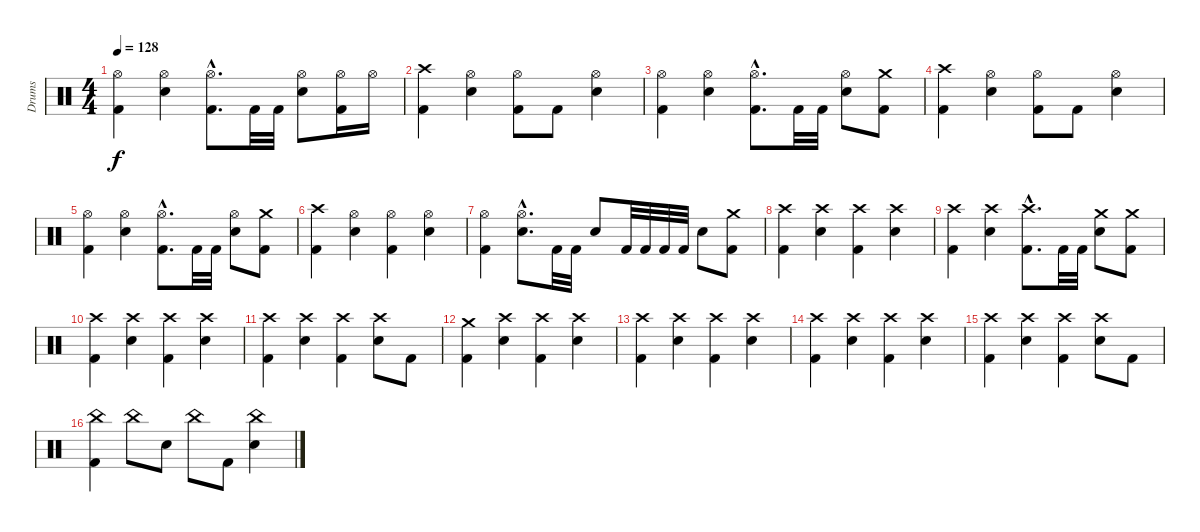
\track ("Drums" "Drums") {instrument percussion}
\staff {score}
\articulation defaults
\ts (4 4)
\tempo 128
\clef neutral
\ks c
("Hi-Hat (open)" "Kick (hit) 2").4{dy f} ("Hi-Hat (open)" "Snare (hit) 2").4 ("Hi-Hat (open)"{hac} "Kick (hit) 2"{hac}).8{d} "Kick (hit) 2".32 "Kick (hit) 2".32 ("Hi-Hat (open)" "Snare (hit) 2").8 ("Hi-Hat (open)" "Kick (hit) 2").16 "Hi-Hat (open)".16 |
("Crash high (hit)" "Kick (hit) 2").4 ("Hi-Hat (open)" "Snare (hit) 2").4 ("Hi-Hat (open)" "Kick (hit) 2").8 "Kick (hit) 2".8 ("Hi-Hat (open)" "Snare (hit) 2").4 |
("Hi-Hat (open)" "Kick (hit) 2").4 ("Hi-Hat (open)" "Snare (hit) 2").4 ("Hi-Hat (open)"{hac} "Kick (hit) 2"{hac}).8{d} "Kick (hit) 2".32 "Kick (hit) 2".32 ("Hi-Hat (open)" "Snare (hit) 2").8 ("Crash medium (hit)" "Kick (hit) 2").8 |
("Crash high (hit)" "Kick (hit) 2").4 ("Hi-Hat (open)" "Snare (hit) 2").4 ("Hi-Hat (open)" "Kick (hit) 2").8 "Kick (hit) 2".8 ("Hi-Hat (open)" "Snare (hit) 2").4 |
("Hi-Hat (open)" "Kick (hit) 2").4 ("Hi-Hat (open)" "Snare (hit) 2").4 ("Hi-Hat (open)"{hac} "Kick (hit) 2"{hac}).8{d} "Kick (hit) 2".32 "Kick (hit) 2".32 ("Hi-Hat (open)" "Snare (hit) 2").8 ("Crash medium (hit)" "Kick (hit) 2").8 |
("Crash high (hit)" "Kick (hit) 2").4 ("Hi-Hat (open)" "Snare (hit) 2").4 ("Hi-Hat (open)" "Kick (hit) 2").4 ("Hi-Hat (open)" "Snare (hit) 2").4 |
("Hi-Hat (open)" "Kick (hit) 2").4 ("Hi-Hat (open)"{hac} "Snare (hit) 2"{hac}).8{d} "Kick (hit) 2".32 "Kick (hit) 2".32 "Snare (hit) 2".8 "Kick (hit) 2".32 "Kick (hit) 2".32 "Kick (hit) 2".32 "Kick (hit) 2".32 "Snare (hit) 2".8 ("Crash medium (hit)" "Kick (hit) 2").8 |
("Crash high (hit)" "Kick (hit) 2").4 ("Crash high (hit)" "Snare (hit) 2").4 ("Crash high (hit)" "Kick (hit) 2").4 ("Crash high (hit)" "Snare (hit) 2").4 |
("Crash high (hit)" "Kick (hit) 2").4 ("Crash high (hit)" "Snare (hit) 2").4 ("Crash high (hit)"{hac} "Kick (hit) 2"{hac}).8{d} "Kick (hit) 2".32 "Kick (hit) 2".32 ("Crash medium (hit)" "Snare (hit) 2").8 ("Crash medium (hit)" "Kick (hit) 2").8 |
("Crash high (hit)" "Kick (hit) 2").4 ("Crash high (hit)" "Snare (hit) 2").4 ("Crash high (hit)" "Kick (hit) 2").4 ("Crash high (hit)" "Snare (hit) 2").4 |
("Crash high (hit)" "Kick (hit) 2").4 ("Crash high (hit)" "Snare (hit) 2").4 ("Crash high (hit)" "Kick (hit) 2").4 ("Crash high (hit)" "Snare (hit) 2").8 "Kick (hit) 2".8 |
("Crash medium (hit)" "Kick (hit) 2").4 ("Crash high (hit)" "Snare (hit) 2").4 ("Crash high (hit)" "Kick (hit) 2").4 ("Crash high (hit)" "Snare (hit) 2").4 |
("Crash high (hit)" "Kick (hit) 2").4 ("Crash high (hit)" "Snare (hit) 2").4 ("Crash high (hit)" "Kick (hit) 2").4 ("Crash high (hit)" "Snare (hit) 2").4 |
("Crash high (hit)" "Kick (hit) 2").4 ("Crash high (hit)" "Snare (hit) 2").4 ("Crash high (hit)" "Kick (hit) 2").4 ("Crash high (hit)" "Snare (hit) 2").4 |
("Crash high (hit)" "Kick (hit) 2").4 ("Crash high (hit)" "Snare (hit) 2").4 ("Crash high (hit)" "Kick (hit) 2").4 ("Crash high (hit)" "Snare (hit) 2").8 "Kick (hit) 2".8 |
("China (hit)" "Kick (hit) 2").4 "China (hit)".8 "Snare (hit) 2".8 "China (hit)".8 "Kick (hit) 2".8 ("China (hit)" "Snare (hit) 2").4
